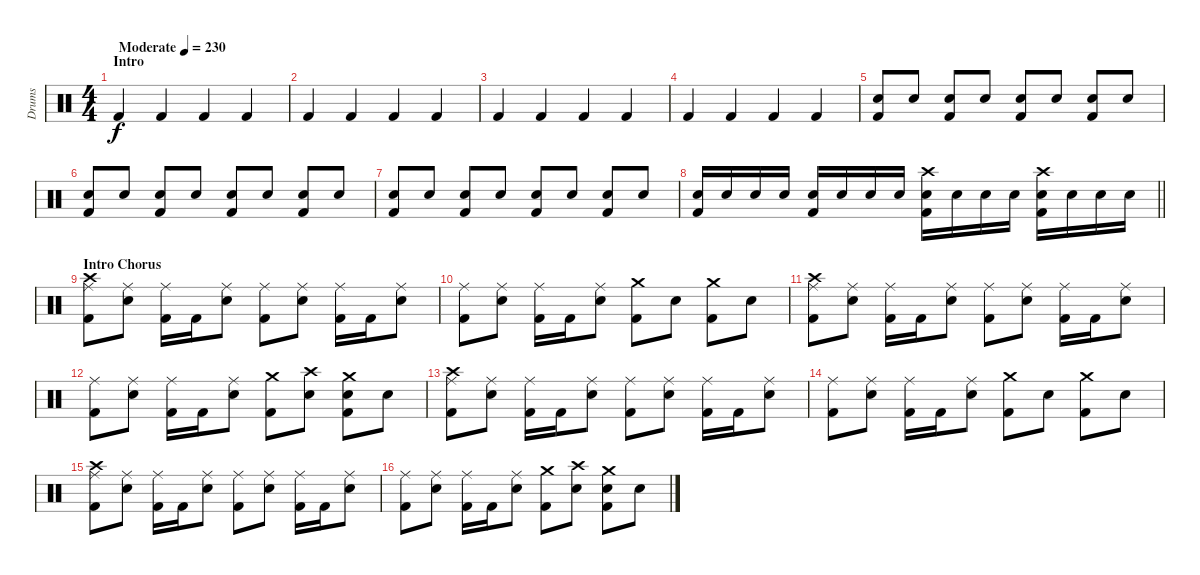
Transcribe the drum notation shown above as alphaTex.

\track ("Drums" "Drums") {instrument percussion}
\staff {score}
\articulation defaults
\ts (4 4)
\section ("" "Intro")
\tempo (230 "Moderate")
\clef neutral
\ks c "Kick (hit) 2".4{dy f} "Kick (hit) 2".4 "Kick (hit) 2".4 "Kick (hit) 2".4
|
"Kick (hit) 2".4 "Kick (hit) 2".4 "Kick (hit) 2".4 "Kick (hit) 2".4 |
"Kick (hit) 2".4 "Kick (hit) 2".4 "Kick (hit) 2".4 "Kick (hit) 2".4 |
"Kick (hit) 2".4 "Kick (hit) 2".4 "Kick (hit) 2".4 "Kick (hit) 2".4 |
("Snare (hit) 2" "Kick (hit) 2").8 "Snare (hit) 2".8 ("Snare (hit) 2" "Kick (hit) 2").8 "Snare (hit) 2".8 ("Snare (hit) 2" "Kick (hit) 2").8 "Snare (hit) 2".8 ("Snare (hit) 2" "Kick (hit) 2").8 "Snare (hit) 2".8 |
("Snare (hit) 2" "Kick (hit) 2").8 "Snare (hit) 2".8 ("Snare (hit) 2" "Kick (hit) 2").8 "Snare (hit) 2".8 ("Snare (hit) 2" "Kick (hit) 2").8 "Snare (hit) 2".8 ("Snare (hit) 2" "Kick (hit) 2").8 "Snare (hit) 2".8 |
("Snare (hit) 2" "Kick (hit) 2").8 "Snare (hit) 2".8 ("Snare (hit) 2" "Kick (hit) 2").8 "Snare (hit) 2".8 ("Snare (hit) 2" "Kick (hit) 2").8 "Snare (hit) 2".8 ("Snare (hit) 2" "Kick (hit) 2").8 "Snare (hit) 2".8 |
\barLineRight lightlight
("Snare (hit) 2" "Kick (hit) 2").16 "Snare (hit) 2".16 "Snare (hit) 2".16 "Snare (hit) 2".16 ("Snare (hit) 2" "Kick (hit) 2").16 "Snare (hit) 2".16 "Snare (hit) 2".16 "Snare (hit) 2".16 ("Crash high (hit)" "Snare (hit) 2" "Kick (hit) 2").16 "Snare (hit) 2".16 "Snare (hit) 2".16 "Snare (hit) 2".16 ("Crash high (hit)" "Snare (hit) 2" "Kick (hit) 2").16 "Snare (hit) 2".16 "Snare (hit) 2".16 "Snare (hit) 2".16 |
\section ("" "Intro Chorus")
("Crash high (hit)" "Ride (middle)" "Kick (hit) 2").8 ("Ride (middle)" "Snare (hit) 2").8 ("Ride (middle)" "Kick (hit) 2").16 "Kick (hit) 2".16 ("Ride (middle)" "Snare (hit) 2").8 ("Ride (middle)" "Kick (hit) 2").8 ("Ride (middle)" "Snare (hit) 2").8 ("Ride (middle)" "Kick (hit) 2").16 "Kick (hit) 2".16 ("Ride (middle)" "Snare (hit) 2").8 |
("Ride (middle)" "Kick (hit) 2").8 ("Ride (middle)" "Snare (hit) 2").8 ("Ride (middle)" "Kick (hit) 2").16 "Kick (hit) 2".16 ("Ride (middle)" "Snare (hit) 2").8 ("Crash medium (hit)" "Kick (hit) 2").8 "Snare (hit) 2".8 ("Crash medium (hit)" "Kick (hit) 2").8 "Snare (hit) 2".8 |
("Crash high (hit)" "Ride (middle)" "Kick (hit) 2").8 ("Ride (middle)" "Snare (hit) 2").8 ("Ride (middle)" "Kick (hit) 2").16 "Kick (hit) 2".16 ("Ride (middle)" "Snare (hit) 2").8 ("Ride (middle)" "Kick (hit) 2").8 ("Ride (middle)" "Snare (hit) 2").8 ("Ride (middle)" "Kick (hit) 2").16 "Kick (hit) 2".16 ("Ride (middle)" "Snare (hit) 2").8 |
("Ride (middle)" "Kick (hit) 2").8 ("Ride (middle)" "Snare (hit) 2").8 ("Ride (middle)" "Kick (hit) 2").16 "Kick (hit) 2".16 ("Ride (middle)" "Snare (hit) 2").8 ("Crash medium (hit)" "Kick (hit) 2").8 ("Crash high (hit)" "Snare (hit) 2").8 ("Crash medium (hit)" "Snare (hit) 2" "Kick (hit) 2").8 "Snare (hit) 2".8 |
("Crash high (hit)" "Ride (middle)" "Kick (hit) 2").8 ("Ride (middle)" "Snare (hit) 2").8 ("Ride (middle)" "Kick (hit) 2").16 "Kick (hit) 2".16 ("Ride (middle)" "Snare (hit) 2").8 ("Ride (middle)" "Kick (hit) 2").8 ("Ride (middle)" "Snare (hit) 2").8 ("Ride (middle)" "Kick (hit) 2").16 "Kick (hit) 2".16 ("Ride (middle)" "Snare (hit) 2").8 |
("Ride (middle)" "Kick (hit) 2").8 ("Ride (middle)" "Snare (hit) 2").8 ("Ride (middle)" "Kick (hit) 2").16 "Kick (hit) 2".16 ("Ride (middle)" "Snare (hit) 2").8 ("Crash medium (hit)" "Kick (hit) 2").8 "Snare (hit) 2".8 ("Crash medium (hit)" "Kick (hit) 2").8 "Snare (hit) 2".8 |
("Crash high (hit)" "Ride (middle)" "Kick (hit) 2").8 ("Ride (middle)" "Snare (hit) 2").8 ("Ride (middle)" "Kick (hit) 2").16 "Kick (hit) 2".16 ("Ride (middle)" "Snare (hit) 2").8 ("Ride (middle)" "Kick (hit) 2").8 ("Ride (middle)" "Snare (hit) 2").8 ("Ride (middle)" "Kick (hit) 2").16 "Kick (hit) 2".16 ("Ride (middle)" "Snare (hit) 2").8 |
("Ride (middle)" "Kick (hit) 2").8 ("Ride (middle)" "Snare (hit) 2").8 ("Ride (middle)" "Kick (hit) 2").16 "Kick (hit) 2".16 ("Ride (middle)" "Snare (hit) 2").8 ("Crash medium (hit)" "Kick (hit) 2").8 ("Crash high (hit)" "Snare (hit) 2").8 ("Crash medium (hit)" "Snare (hit) 2" "Kick (hit) 2").8 "Snare (hit) 2".8
